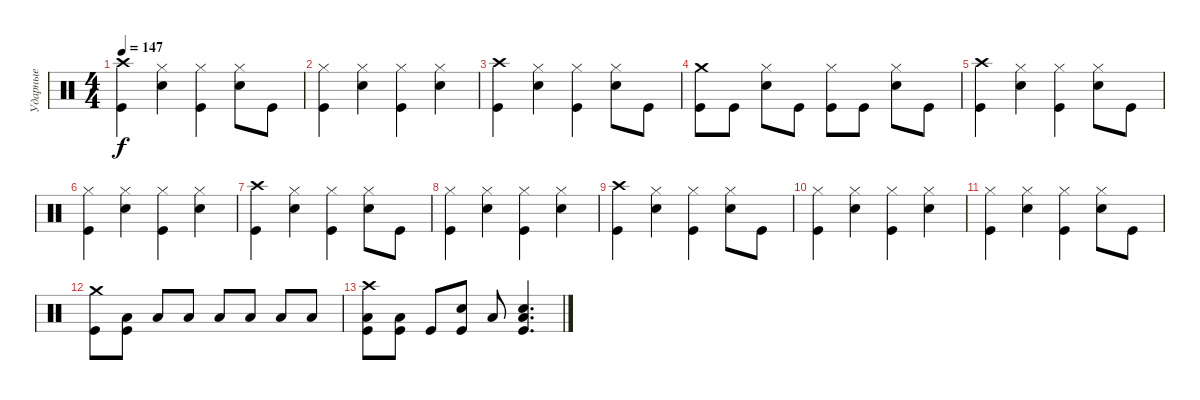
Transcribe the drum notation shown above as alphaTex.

\track ("Ударные" "Ударные") {instrument percussion}
\staff {score}
\articulation defaults
\ts (4 4)
\tempo 147
\clef neutral
\ks c
("Crash high (hit)" "Kick (hit)").4{dy f} ("Hi-Hat (closed)" "Electric Snare (hit)").4 ("Hi-Hat (closed)" "Kick (hit)").4 ("Hi-Hat (closed)" "Electric Snare (hit)").8 "Kick (hit)".8 |
("Hi-Hat (closed)" "Kick (hit)").4 ("Hi-Hat (closed)" "Electric Snare (hit)").4 ("Hi-Hat (closed)" "Kick (hit)").4 ("Hi-Hat (closed)" "Electric Snare (hit)").4 |
("Crash high (hit)" "Kick (hit)").4 ("Hi-Hat (closed)" "Electric Snare (hit)").4 ("Hi-Hat (closed)" "Kick (hit)").4 ("Hi-Hat (closed)" "Electric Snare (hit)").8 "Kick (hit)".8 |
("Crash medium (hit)" "Kick (hit)").8 "Kick (hit)".8 ("Hi-Hat (closed)" "Electric Snare (hit)").8 "Kick (hit)".8 ("Hi-Hat (closed)" "Kick (hit)").8 "Kick (hit)".8 ("Hi-Hat (closed)" "Electric Snare (hit)").8 "Kick (hit)".8 |
("Crash high (hit)" "Kick (hit)").4 ("Hi-Hat (closed)" "Electric Snare (hit)").4 ("Hi-Hat (closed)" "Kick (hit)").4 ("Hi-Hat (closed)" "Electric Snare (hit)").8 "Kick (hit)".8 |
("Hi-Hat (closed)" "Kick (hit)").4 ("Hi-Hat (closed)" "Electric Snare (hit)").4 ("Hi-Hat (closed)" "Kick (hit)").4 ("Hi-Hat (closed)" "Electric Snare (hit)").4 |
("Crash high (hit)" "Kick (hit)").4 ("Hi-Hat (closed)" "Electric Snare (hit)").4 ("Hi-Hat (closed)" "Kick (hit)").4 ("Hi-Hat (closed)" "Electric Snare (hit)").8 "Kick (hit)".8 |
("Hi-Hat (closed)" "Kick (hit)").4 ("Hi-Hat (closed)" "Electric Snare (hit)").4 ("Hi-Hat (closed)" "Kick (hit)").4 ("Hi-Hat (closed)" "Electric Snare (hit)").4 |
("Crash high (hit)" "Kick (hit)").4 ("Hi-Hat (closed)" "Electric Snare (hit)").4 ("Hi-Hat (closed)" "Kick (hit)").4 ("Hi-Hat (closed)" "Electric Snare (hit)").8 "Kick (hit)".8 |
("Hi-Hat (closed)" "Kick (hit)").4 ("Hi-Hat (closed)" "Electric Snare (hit)").4 ("Hi-Hat (closed)" "Kick (hit)").4 ("Hi-Hat (closed)" "Electric Snare (hit)").4 |
("Hi-Hat (closed)" "Kick (hit)").4 ("Hi-Hat (closed)" "Electric Snare (hit)").4 ("Hi-Hat (closed)" "Kick (hit)").4 ("Hi-Hat (closed)" "Electric Snare (hit)").8 "Kick (hit)".8 |
("Crash medium (hit)" "Kick (hit)").8 ("Low Tom (hit)" "Kick (hit)").8 "Low Tom (hit)".8 "Low Tom (hit)".8 "Low Tom (hit)".8 "Low Tom (hit)".8 "Low Tom (hit)".8 "Low Tom (hit)".8 |
("Crash high (hit)" "Low Tom (hit)" "Kick (hit)").8 ("Low Tom (hit)" "Kick (hit)").8 "Kick (hit)".8 ("Electric Snare (hit)" "Kick (hit)").8 "Low Tom (hit)".8 ("Low Tom (hit)" "Electric Snare (hit)" "Kick (hit)").4{d}
